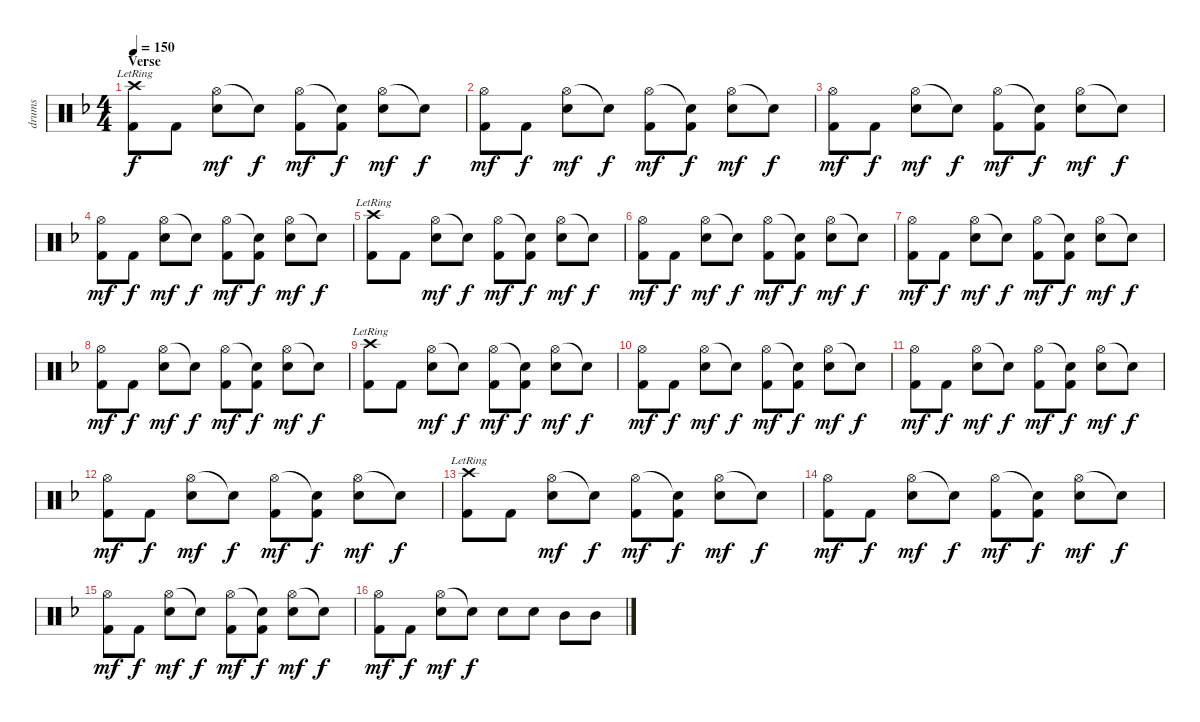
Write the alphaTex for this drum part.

\track ("drums" "drums") {instrument percussion}
\staff {score}
\articulation defaults
\ts (4 4)
\section ("" "Verse")
\tempo 150
\clef neutral
\ks dminor
("Crash high (hit)"{lr} "Kick (hit) 2").8{dy f} "Kick (hit) 2".8 ("Hi-Hat (open)" "Electric Snare (hit)").8{dy mf} "Snare (hit)"{t}.8{dy f} ("Hi-Hat (open)" "Kick (hit) 2").8{dy mf} ("Snare (hit)"{t} "Kick (hit) 2").8{dy f} ("Hi-Hat (open)" "Electric Snare (hit)").8{dy mf} "Snare (hit)"{t}.8{dy f} |
("Hi-Hat (open)" "Kick (hit) 2").8{dy mf} "Kick (hit) 2".8{dy f} ("Hi-Hat (open)" "Electric Snare (hit)").8{dy mf} "Snare (hit)"{t}.8{dy f} ("Hi-Hat (open)" "Kick (hit) 2").8{dy mf} ("Snare (hit)"{t} "Kick (hit) 2").8{dy f} ("Hi-Hat (open)" "Electric Snare (hit)").8{dy mf} "Snare (hit)"{t}.8{dy f} |
("Hi-Hat (open)" "Kick (hit) 2").8{dy mf} "Kick (hit) 2".8{dy f} ("Hi-Hat (open)" "Electric Snare (hit)").8{dy mf} "Snare (hit)"{t}.8{dy f} ("Hi-Hat (open)" "Kick (hit) 2").8{dy mf} ("Snare (hit)"{t} "Kick (hit) 2").8{dy f} ("Hi-Hat (open)" "Electric Snare (hit)").8{dy mf} "Snare (hit)"{t}.8{dy f} |
("Hi-Hat (open)" "Kick (hit) 2").8{dy mf} "Kick (hit) 2".8{dy f} ("Hi-Hat (open)" "Electric Snare (hit)").8{dy mf} "Snare (hit)"{t}.8{dy f} ("Hi-Hat (open)" "Kick (hit) 2").8{dy mf} ("Snare (hit)"{t} "Kick (hit) 2").8{dy f} ("Hi-Hat (open)" "Electric Snare (hit)").8{dy mf} "Snare (hit)"{t}.8{dy f} |
("Crash high (hit)"{lr} "Kick (hit) 2").8 "Kick (hit) 2".8 ("Hi-Hat (open)" "Electric Snare (hit)").8{dy mf} "Snare (hit)"{t}.8{dy f} ("Hi-Hat (open)" "Kick (hit) 2").8{dy mf} ("Snare (hit)"{t} "Kick (hit) 2").8{dy f} ("Hi-Hat (open)" "Electric Snare (hit)").8{dy mf} "Snare (hit)"{t}.8{dy f} |
("Hi-Hat (open)" "Kick (hit) 2").8{dy mf} "Kick (hit) 2".8{dy f} ("Hi-Hat (open)" "Electric Snare (hit)").8{dy mf} "Snare (hit)"{t}.8{dy f} ("Hi-Hat (open)" "Kick (hit) 2").8{dy mf} ("Snare (hit)"{t} "Kick (hit) 2").8{dy f} ("Hi-Hat (open)" "Electric Snare (hit)").8{dy mf} "Snare (hit)"{t}.8{dy f} |
("Hi-Hat (open)" "Kick (hit) 2").8{dy mf} "Kick (hit) 2".8{dy f} ("Hi-Hat (open)" "Electric Snare (hit)").8{dy mf} "Snare (hit)"{t}.8{dy f} ("Hi-Hat (open)" "Kick (hit) 2").8{dy mf} ("Snare (hit)"{t} "Kick (hit) 2").8{dy f} ("Hi-Hat (open)" "Electric Snare (hit)").8{dy mf} "Snare (hit)"{t}.8{dy f} |
("Hi-Hat (open)" "Kick (hit) 2").8{dy mf} "Kick (hit) 2".8{dy f} ("Hi-Hat (open)" "Electric Snare (hit)").8{dy mf} "Snare (hit)"{t}.8{dy f} ("Hi-Hat (open)" "Kick (hit) 2").8{dy mf} ("Snare (hit)"{t} "Kick (hit) 2").8{dy f} ("Hi-Hat (open)" "Electric Snare (hit)").8{dy mf} "Snare (hit)"{t}.8{dy f} |
("Crash high (hit)"{lr} "Kick (hit) 2").8 "Kick (hit) 2".8 ("Hi-Hat (open)" "Electric Snare (hit)").8{dy mf} "Snare (hit)"{t}.8{dy f} ("Hi-Hat (open)" "Kick (hit) 2").8{dy mf} ("Snare (hit)"{t} "Kick (hit) 2").8{dy f} ("Hi-Hat (open)" "Electric Snare (hit)").8{dy mf} "Snare (hit)"{t}.8{dy f} |
("Hi-Hat (open)" "Kick (hit) 2").8{dy mf} "Kick (hit) 2".8{dy f} ("Hi-Hat (open)" "Electric Snare (hit)").8{dy mf} "Snare (hit)"{t}.8{dy f} ("Hi-Hat (open)" "Kick (hit) 2").8{dy mf} ("Snare (hit)"{t} "Kick (hit) 2").8{dy f} ("Hi-Hat (open)" "Electric Snare (hit)").8{dy mf} "Snare (hit)"{t}.8{dy f} |
("Hi-Hat (open)" "Kick (hit) 2").8{dy mf} "Kick (hit) 2".8{dy f} ("Hi-Hat (open)" "Electric Snare (hit)").8{dy mf} "Snare (hit)"{t}.8{dy f} ("Hi-Hat (open)" "Kick (hit) 2").8{dy mf} ("Snare (hit)"{t} "Kick (hit) 2").8{dy f} ("Hi-Hat (open)" "Electric Snare (hit)").8{dy mf} "Snare (hit)"{t}.8{dy f} |
("Hi-Hat (open)" "Kick (hit) 2").8{dy mf} "Kick (hit) 2".8{dy f} ("Hi-Hat (open)" "Electric Snare (hit)").8{dy mf} "Snare (hit)"{t}.8{dy f} ("Hi-Hat (open)" "Kick (hit) 2").8{dy mf} ("Snare (hit)"{t} "Kick (hit) 2").8{dy f} ("Hi-Hat (open)" "Electric Snare (hit)").8{dy mf} "Snare (hit)"{t}.8{dy f} |
("Crash high (hit)"{lr} "Kick (hit) 2").8 "Kick (hit) 2".8 ("Hi-Hat (open)" "Electric Snare (hit)").8{dy mf} "Snare (hit)"{t}.8{dy f} ("Hi-Hat (open)" "Kick (hit) 2").8{dy mf} ("Snare (hit)"{t} "Kick (hit) 2").8{dy f} ("Hi-Hat (open)" "Electric Snare (hit)").8{dy mf} "Snare (hit)"{t}.8{dy f} |
("Hi-Hat (open)" "Kick (hit) 2").8{dy mf} "Kick (hit) 2".8{dy f} ("Hi-Hat (open)" "Electric Snare (hit)").8{dy mf} "Snare (hit)"{t}.8{dy f} ("Hi-Hat (open)" "Kick (hit) 2").8{dy mf} ("Snare (hit)"{t} "Kick (hit) 2").8{dy f} ("Hi-Hat (open)" "Electric Snare (hit)").8{dy mf} "Snare (hit)"{t}.8{dy f} |
("Hi-Hat (open)" "Kick (hit) 2").8{dy mf} "Kick (hit) 2".8{dy f} ("Hi-Hat (open)" "Electric Snare (hit)").8{dy mf} "Snare (hit)"{t}.8{dy f} ("Hi-Hat (open)" "Kick (hit) 2").8{dy mf} ("Snare (hit)"{t} "Kick (hit) 2").8{dy f} ("Hi-Hat (open)" "Electric Snare (hit)").8{dy mf} "Snare (hit)"{t}.8{dy f} |
("Hi-Hat (open)" "Kick (hit) 2").8{dy mf} "Kick (hit) 2".8{dy f} ("Hi-Hat (open)" "Electric Snare (hit)").8{dy mf} "Snare (hit)"{t}.8{dy f} "Electric Snare (hit)".8 "Electric Snare (hit)".8 "Mid Tom (hit)".8 "Mid Tom (hit)".8
